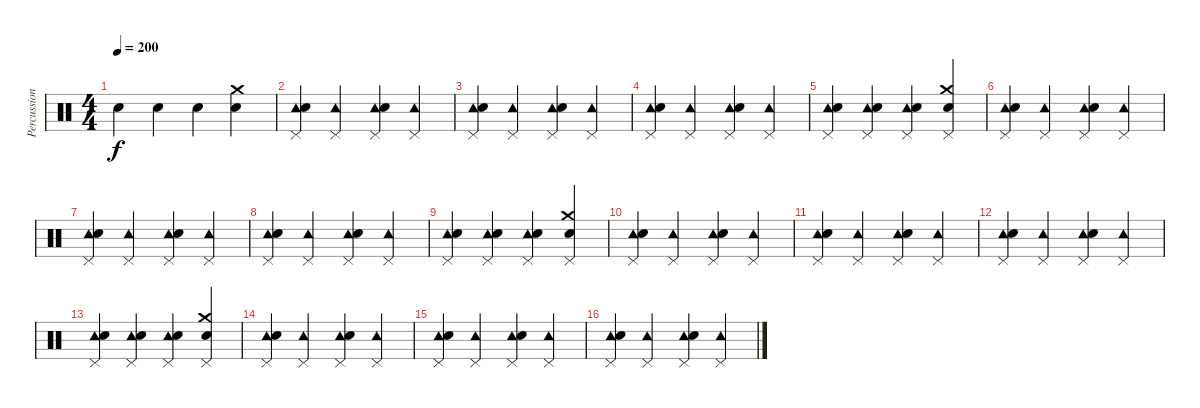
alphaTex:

\track ("Percussion" "Percussion") {instrument percussion}
\staff {score}
\articulation defaults
\ts (4 4)
\tempo 200
\clef neutral
\ks c "Electric Snare (hit)".4{dy f} "Electric Snare (hit)".4 "Electric Snare (hit)".4
("Crash medium (hit)" "Electric Snare (hit)").4 |
("Tambourine (hit)" "Pedal Hi-Hat (hit)" "Electric Snare (hit)").4 ("Tambourine (hit)" "Pedal Hi-Hat (hit)").4 ("Tambourine (hit)" "Pedal Hi-Hat (hit)" "Electric Snare (hit)").4 ("Tambourine (hit)" "Pedal Hi-Hat (hit)").4 |
("Tambourine (hit)" "Pedal Hi-Hat (hit)" "Electric Snare (hit)").4 ("Tambourine (hit)" "Pedal Hi-Hat (hit)").4 ("Tambourine (hit)" "Pedal Hi-Hat (hit)" "Electric Snare (hit)").4 ("Tambourine (hit)" "Pedal Hi-Hat (hit)").4 |
("Tambourine (hit)" "Pedal Hi-Hat (hit)" "Electric Snare (hit)").4 ("Tambourine (hit)" "Pedal Hi-Hat (hit)").4 ("Tambourine (hit)" "Pedal Hi-Hat (hit)" "Electric Snare (hit)").4 ("Tambourine (hit)" "Pedal Hi-Hat (hit)").4 |
("Tambourine (hit)" "Pedal Hi-Hat (hit)" "Electric Snare (hit)").4 ("Tambourine (hit)" "Pedal Hi-Hat (hit)" "Electric Snare (hit)").4 ("Tambourine (hit)" "Pedal Hi-Hat (hit)" "Electric Snare (hit)").4 ("Crash medium (hit)" "Pedal Hi-Hat (hit)" "Electric Snare (hit)").4 |
("Tambourine (hit)" "Pedal Hi-Hat (hit)" "Electric Snare (hit)").4 ("Tambourine (hit)" "Pedal Hi-Hat (hit)").4 ("Tambourine (hit)" "Pedal Hi-Hat (hit)" "Electric Snare (hit)").4 ("Tambourine (hit)" "Pedal Hi-Hat (hit)").4 |
("Tambourine (hit)" "Pedal Hi-Hat (hit)" "Electric Snare (hit)").4 ("Tambourine (hit)" "Pedal Hi-Hat (hit)").4 ("Tambourine (hit)" "Pedal Hi-Hat (hit)" "Electric Snare (hit)").4 ("Tambourine (hit)" "Pedal Hi-Hat (hit)").4 |
("Tambourine (hit)" "Pedal Hi-Hat (hit)" "Electric Snare (hit)").4 ("Tambourine (hit)" "Pedal Hi-Hat (hit)").4 ("Tambourine (hit)" "Pedal Hi-Hat (hit)" "Electric Snare (hit)").4 ("Tambourine (hit)" "Pedal Hi-Hat (hit)").4 |
("Tambourine (hit)" "Pedal Hi-Hat (hit)" "Electric Snare (hit)").4 ("Tambourine (hit)" "Pedal Hi-Hat (hit)" "Electric Snare (hit)").4 ("Tambourine (hit)" "Pedal Hi-Hat (hit)" "Electric Snare (hit)").4 ("Crash medium (hit)" "Pedal Hi-Hat (hit)" "Electric Snare (hit)").4 |
("Tambourine (hit)" "Pedal Hi-Hat (hit)" "Electric Snare (hit)").4 ("Tambourine (hit)" "Pedal Hi-Hat (hit)").4 ("Tambourine (hit)" "Pedal Hi-Hat (hit)" "Electric Snare (hit)").4 ("Tambourine (hit)" "Pedal Hi-Hat (hit)").4 |
("Tambourine (hit)" "Pedal Hi-Hat (hit)" "Electric Snare (hit)").4 ("Tambourine (hit)" "Pedal Hi-Hat (hit)").4 ("Tambourine (hit)" "Pedal Hi-Hat (hit)" "Electric Snare (hit)").4 ("Tambourine (hit)" "Pedal Hi-Hat (hit)").4 |
("Tambourine (hit)" "Pedal Hi-Hat (hit)" "Electric Snare (hit)").4 ("Tambourine (hit)" "Pedal Hi-Hat (hit)").4 ("Tambourine (hit)" "Pedal Hi-Hat (hit)" "Electric Snare (hit)").4 ("Tambourine (hit)" "Pedal Hi-Hat (hit)").4 |
("Tambourine (hit)" "Pedal Hi-Hat (hit)" "Electric Snare (hit)").4 ("Tambourine (hit)" "Pedal Hi-Hat (hit)" "Electric Snare (hit)").4 ("Tambourine (hit)" "Pedal Hi-Hat (hit)" "Electric Snare (hit)").4 ("Crash medium (hit)" "Pedal Hi-Hat (hit)" "Electric Snare (hit)").4 |
("Tambourine (hit)" "Pedal Hi-Hat (hit)" "Electric Snare (hit)").4 ("Tambourine (hit)" "Pedal Hi-Hat (hit)").4 ("Tambourine (hit)" "Pedal Hi-Hat (hit)" "Electric Snare (hit)").4 ("Tambourine (hit)" "Pedal Hi-Hat (hit)").4 |
("Tambourine (hit)" "Pedal Hi-Hat (hit)" "Electric Snare (hit)").4 ("Tambourine (hit)" "Pedal Hi-Hat (hit)").4 ("Tambourine (hit)" "Pedal Hi-Hat (hit)" "Electric Snare (hit)").4 ("Tambourine (hit)" "Pedal Hi-Hat (hit)").4 |
("Tambourine (hit)" "Pedal Hi-Hat (hit)" "Electric Snare (hit)").4 ("Tambourine (hit)" "Pedal Hi-Hat (hit)").4 ("Tambourine (hit)" "Pedal Hi-Hat (hit)" "Electric Snare (hit)").4 ("Tambourine (hit)" "Pedal Hi-Hat (hit)").4
